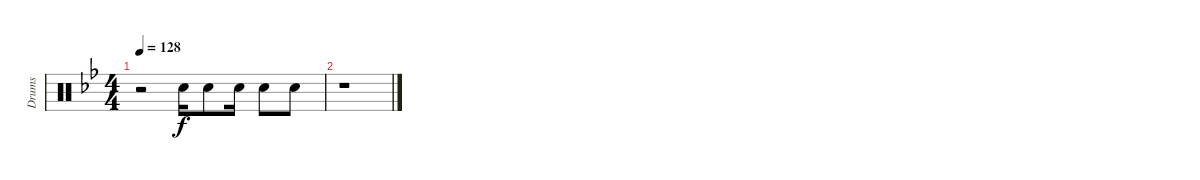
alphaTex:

\track ("Drums" "Drums") {instrument percussion}
\staff {score}
\articulation defaults
\ts (4 4)
\tempo 128
\clef neutral
\ks gminor
r.2{dy f} "Electric Snare (hit)".16 "Electric Snare (hit)".8 "Electric Snare (hit)".16 "Electric Snare (hit)".8 "Electric Snare (hit)".8 |
r.1
